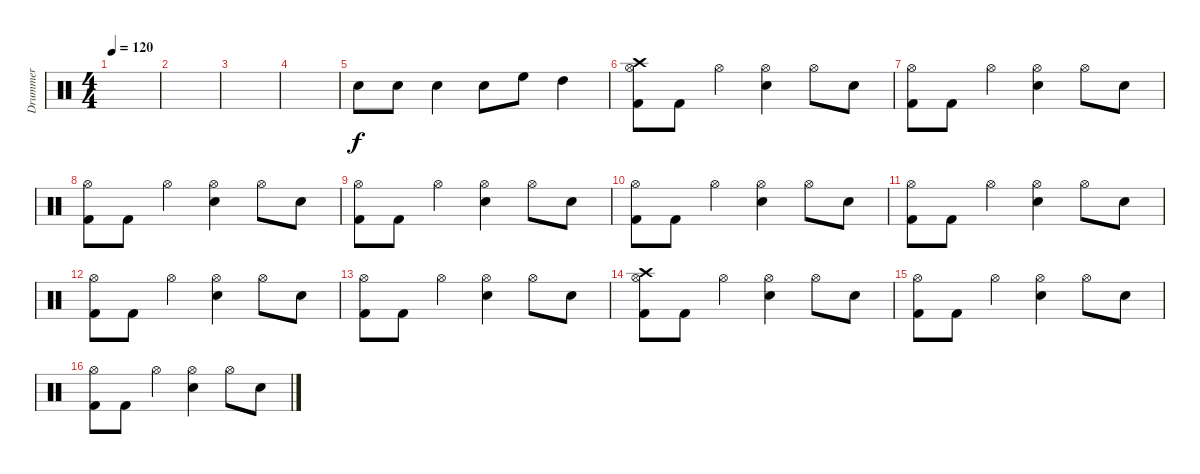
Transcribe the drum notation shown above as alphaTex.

\track ("Drummer" "Drummer") {instrument percussion}
\staff {score}
\articulation defaults
\ts (4 4)
\tempo 120
\clef neutral
\ks c
|
|
|
|
"Snare (hit) 2".8 "Snare (hit) 2".8 "Snare (hit) 2".4 "Electric Snare (hit)".8 "High Floor Tom (hit)".8 "High Tom (hit)".4 |
("Crash high (hit)" "Hi-Hat (open)" "Kick (hit) 2").8 "Kick (hit) 2".8 "Hi-Hat (open)".4 ("Hi-Hat (open)" "Snare (hit) 2").4 "Hi-Hat (open)".8 "Snare (hit) 2".8 |
("Hi-Hat (open)" "Kick (hit) 2").8 "Kick (hit) 2".8 "Hi-Hat (open)".4 ("Hi-Hat (open)" "Snare (hit) 2").4 "Hi-Hat (open)".8 "Snare (hit) 2".8 |
("Hi-Hat (open)" "Kick (hit) 2").8 "Kick (hit) 2".8 "Hi-Hat (open)".4 ("Hi-Hat (open)" "Snare (hit) 2").4 "Hi-Hat (open)".8 "Snare (hit) 2".8 |
("Hi-Hat (open)" "Kick (hit) 2").8 "Kick (hit) 2".8 "Hi-Hat (open)".4 ("Hi-Hat (open)" "Snare (hit) 2").4 "Hi-Hat (open)".8 "Snare (hit) 2".8 |
("Hi-Hat (open)" "Kick (hit) 2").8 "Kick (hit) 2".8 "Hi-Hat (open)".4 ("Hi-Hat (open)" "Snare (hit) 2").4 "Hi-Hat (open)".8 "Snare (hit) 2".8 |
("Hi-Hat (open)" "Kick (hit) 2").8 "Kick (hit) 2".8 "Hi-Hat (open)".4 ("Hi-Hat (open)" "Snare (hit) 2").4 "Hi-Hat (open)".8 "Snare (hit) 2".8 |
("Hi-Hat (open)" "Kick (hit) 2").8 "Kick (hit) 2".8 "Hi-Hat (open)".4 ("Hi-Hat (open)" "Snare (hit) 2").4 "Hi-Hat (open)".8 "Snare (hit) 2".8 |
("Hi-Hat (open)" "Kick (hit) 2").8 "Kick (hit) 2".8 "Hi-Hat (open)".4 ("Hi-Hat (open)" "Snare (hit) 2").4 "Hi-Hat (open)".8 "Snare (hit) 2".8 |
("Crash high (hit)" "Hi-Hat (open)" "Kick (hit) 2").8 "Kick (hit) 2".8 "Hi-Hat (open)".4 ("Hi-Hat (open)" "Snare (hit) 2").4 "Hi-Hat (open)".8 "Snare (hit) 2".8 |
("Hi-Hat (open)" "Kick (hit) 2").8 "Kick (hit) 2".8 "Hi-Hat (open)".4 ("Hi-Hat (open)" "Snare (hit) 2").4 "Hi-Hat (open)".8 "Snare (hit) 2".8 |
("Hi-Hat (open)" "Kick (hit) 2").8 "Kick (hit) 2".8 "Hi-Hat (open)".4 ("Hi-Hat (open)" "Snare (hit) 2").4 "Hi-Hat (open)".8 "Snare (hit) 2".8
